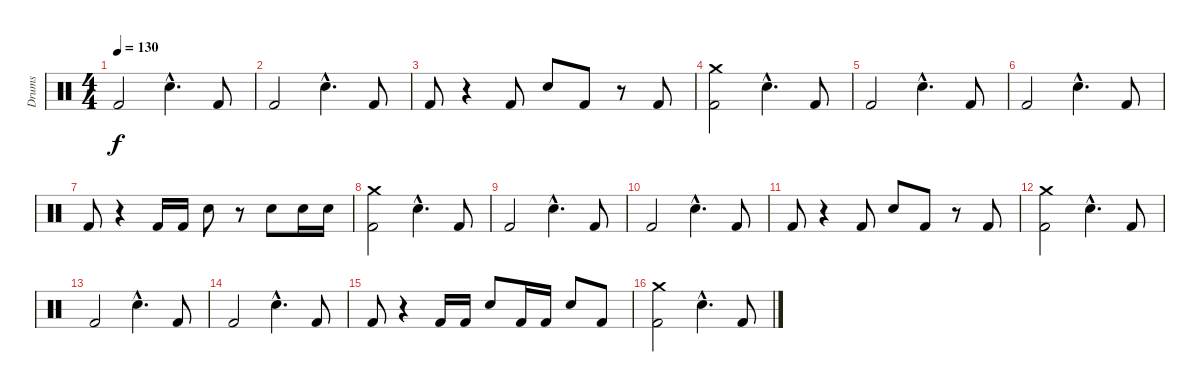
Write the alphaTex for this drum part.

\track ("Drums" "Drums") {instrument percussion}
\staff {score}
\articulation defaults
\ts (4 4)
\tempo 130
\clef neutral
\ks c "Kick (hit) 2".2{dy f} "Electric Snare (hit)"{hac}.4{d} "Kick (hit) 2".8
|
"Kick (hit) 2".2 "Electric Snare (hit)"{hac}.4{d} "Kick (hit) 2".8 |
"Kick (hit) 2".8 r.4 "Kick (hit) 2".8 "Electric Snare (hit)".8 "Kick (hit) 2".8 r.8 "Kick (hit) 2".8 |
("Crash medium (hit)" "Kick (hit) 2").2 "Electric Snare (hit)"{hac}.4{d} "Kick (hit) 2".8 |
"Kick (hit) 2".2 "Electric Snare (hit)"{hac}.4{d} "Kick (hit) 2".8 |
"Kick (hit) 2".2 "Electric Snare (hit)"{hac}.4{d} "Kick (hit) 2".8 |
"Kick (hit) 2".8 r.4 "Kick (hit) 2".16 "Kick (hit) 2".16 "Electric Snare (hit)".8 r.8 "Electric Snare (hit)".8 "Electric Snare (hit)".16 "Electric Snare (hit)".16 |
\section ("" "")
("Crash medium (hit)" "Kick (hit) 2").2 "Electric Snare (hit)"{hac}.4{d} "Kick (hit) 2".8 |
"Kick (hit) 2".2 "Electric Snare (hit)"{hac}.4{d} "Kick (hit) 2".8 |
"Kick (hit) 2".2 "Electric Snare (hit)"{hac}.4{d} "Kick (hit) 2".8 |
"Kick (hit) 2".8 r.4 "Kick (hit) 2".8 "Electric Snare (hit)".8 "Kick (hit) 2".8 r.8 "Kick (hit) 2".8 |
("Crash medium (hit)" "Kick (hit) 2").2 "Electric Snare (hit)"{hac}.4{d} "Kick (hit) 2".8 |
"Kick (hit) 2".2 "Electric Snare (hit)"{hac}.4{d} "Kick (hit) 2".8 |
"Kick (hit) 2".2 "Electric Snare (hit)"{hac}.4{d} "Kick (hit) 2".8 |
"Kick (hit) 2".8 r.4 "Kick (hit) 2".16 "Kick (hit) 2".16 "Electric Snare (hit)".8 "Kick (hit) 2".16 "Kick (hit) 2".16 "Electric Snare (hit)".8 "Kick (hit) 2".8 |
("Crash medium (hit)" "Kick (hit) 2").2 "Electric Snare (hit)"{hac}.4{d} "Kick (hit) 2".8
